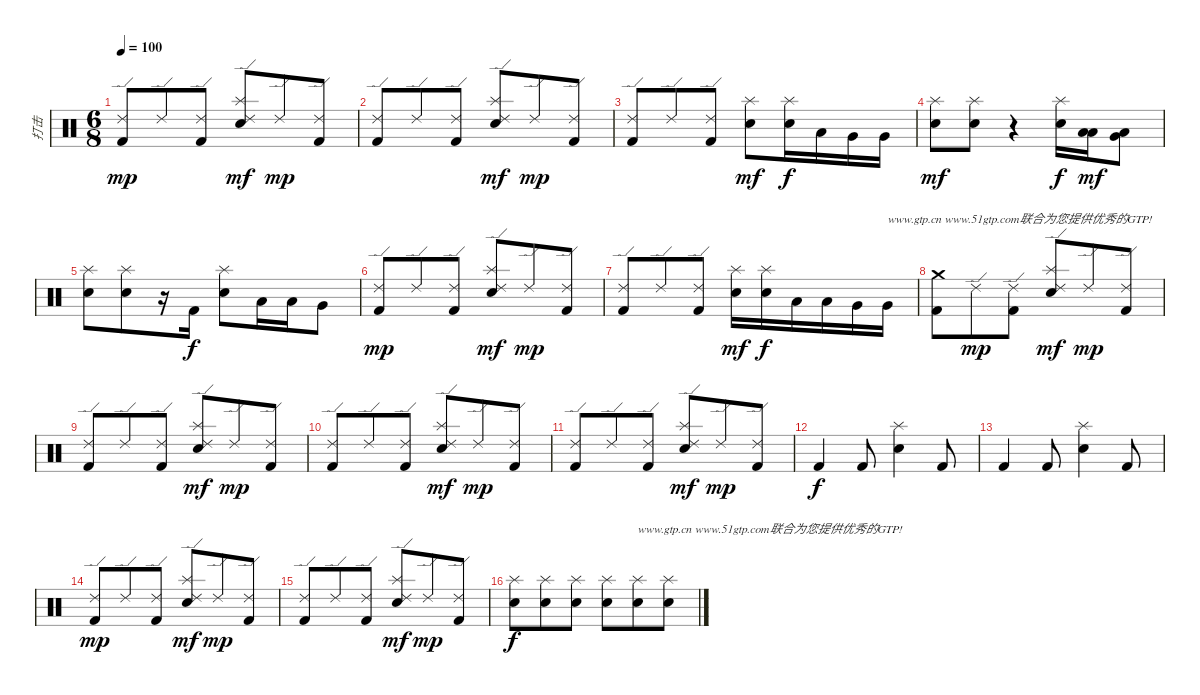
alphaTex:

\track ("打击" "打击") {instrument percussion}
\staff {score}
\articulation defaults
\ts (6 8)
\tempo 100
\clef neutral
\ks c
("Ride (edge) 2" "Kick (hit) 2").8{dy mp} "Ride (edge) 2".8 ("Ride (edge) 2" "Kick (hit) 2").8 ("Ride (edge) 2" "Splash (hit)" "Electric Snare (hit)").8{dy mf} "Ride (edge) 2".8{dy mp} ("Ride (edge) 2" "Kick (hit) 2").8 |
("Ride (edge) 2" "Kick (hit) 2").8 "Ride (edge) 2".8 ("Ride (edge) 2" "Kick (hit) 2").8 ("Ride (edge) 2" "Splash (hit)" "Electric Snare (hit)").8{dy mf} "Ride (edge) 2".8{dy mp} ("Ride (edge) 2" "Kick (hit) 2").8 |
("Ride (edge) 2" "Kick (hit) 2").8 "Ride (edge) 2".8 ("Ride (edge) 2" "Kick (hit) 2").8 ("Splash (hit)" "Electric Snare (hit)").8{dy mf} ("Splash (hit)" "Electric Snare (hit)").16{dy f} "Low Tom (hit)".16 "Very Low Tom (hit)".16 "Very Low Tom (hit)".16 |
("Splash (hit)" "Electric Snare (hit)").8{dy mf} ("Splash (hit)" "Electric Snare (hit)").8 r.4 ("Splash (hit)" "Electric Snare (hit)").16{dy f} ("Low Tom (hit)" "Low Floor Tom (hit)").16{dy mf} ("Very Low Tom (hit)" "Low Floor Tom (hit)").8 |
("Splash (hit)" "Electric Snare (hit)").8 ("Splash (hit)" "Electric Snare (hit)").8 r.16 "Kick (hit) 2".16{dy f} ("Splash (hit)" "Electric Snare (hit)").8 "Low Tom (hit)".16 "Low Tom (hit)".16 "Very Low Tom (hit)".8 |
("Ride (edge) 2" "Kick (hit) 2").8{dy mp} "Ride (edge) 2".8 ("Ride (edge) 2" "Kick (hit) 2").8 ("Ride (edge) 2" "Splash (hit)" "Electric Snare (hit)").8{dy mf} "Ride (edge) 2".8{dy mp} ("Ride (edge) 2" "Kick (hit) 2").8 |
("Ride (edge) 2" "Kick (hit) 2").8 "Ride (edge) 2".8 ("Ride (edge) 2" "Kick (hit) 2").8 ("Splash (hit)" "Electric Snare (hit)").16{dy mf} ("Splash (hit)" "Electric Snare (hit)").16{dy f} "Low Tom (hit)".16 "Low Tom (hit)".16 "Very Low Tom (hit)".16 "Very Low Tom (hit)".16{txt "www.gtp.cn www.51gtp.com联合为您提供优秀的GTP!"} |
("Crash medium (hit)" "Kick (hit) 2").8 "Ride (edge) 2".8{dy mp} ("Ride (edge) 2" "Kick (hit) 2").8 ("Ride (edge) 2" "Splash (hit)" "Electric Snare (hit)").8{dy mf} "Ride (edge) 2".8{dy mp} ("Ride (edge) 2" "Kick (hit) 2").8 |
("Ride (edge) 2" "Kick (hit) 2").8 "Ride (edge) 2".8 ("Ride (edge) 2" "Kick (hit) 2").8 ("Ride (edge) 2" "Splash (hit)" "Electric Snare (hit)").8{dy mf} "Ride (edge) 2".8{dy mp} ("Ride (edge) 2" "Kick (hit) 2").8 |
("Ride (edge) 2" "Kick (hit) 2").8 "Ride (edge) 2".8 ("Ride (edge) 2" "Kick (hit) 2").8 ("Ride (edge) 2" "Splash (hit)" "Electric Snare (hit)").8{dy mf} "Ride (edge) 2".8{dy mp} ("Ride (edge) 2" "Kick (hit) 2").8 |
("Ride (edge) 2" "Kick (hit) 2").8 "Ride (edge) 2".8 ("Ride (edge) 2" "Kick (hit) 2").8 ("Ride (edge) 2" "Splash (hit)" "Electric Snare (hit)").8{dy mf} "Ride (edge) 2".8{dy mp} ("Ride (edge) 2" "Kick (hit) 2").8 |
"Kick (hit) 2".4{dy f} "Kick (hit) 2".8 ("Splash (hit)" "Electric Snare (hit)").4 "Kick (hit) 2".8 |
"Kick (hit) 2".4 "Kick (hit) 2".8 ("Splash (hit)" "Electric Snare (hit)").4 "Kick (hit) 2".8 |
("Ride (edge) 2" "Kick (hit) 2").8{dy mp} "Ride (edge) 2".8 ("Ride (edge) 2" "Kick (hit) 2").8 ("Ride (edge) 2" "Splash (hit)" "Electric Snare (hit)").8{dy mf} "Ride (edge) 2".8{dy mp} ("Ride (edge) 2" "Kick (hit) 2").8 |
("Ride (edge) 2" "Kick (hit) 2").8 "Ride (edge) 2".8 ("Ride (edge) 2" "Kick (hit) 2").8 ("Ride (edge) 2" "Splash (hit)" "Electric Snare (hit)").8{dy mf} "Ride (edge) 2".8{dy mp} ("Ride (edge) 2" "Kick (hit) 2").8 |
("Splash (hit)" "Electric Snare (hit)").8{dy f} ("Splash (hit)" "Electric Snare (hit)").8 ("Splash (hit)" "Electric Snare (hit)").8 ("Splash (hit)" "Electric Snare (hit)").8 ("Splash (hit)" "Electric Snare (hit)").8{txt "www.gtp.cn www.51gtp.com联合为您提供优秀的GTP!"} ("Splash (hit)" "Electric Snare (hit)").8
